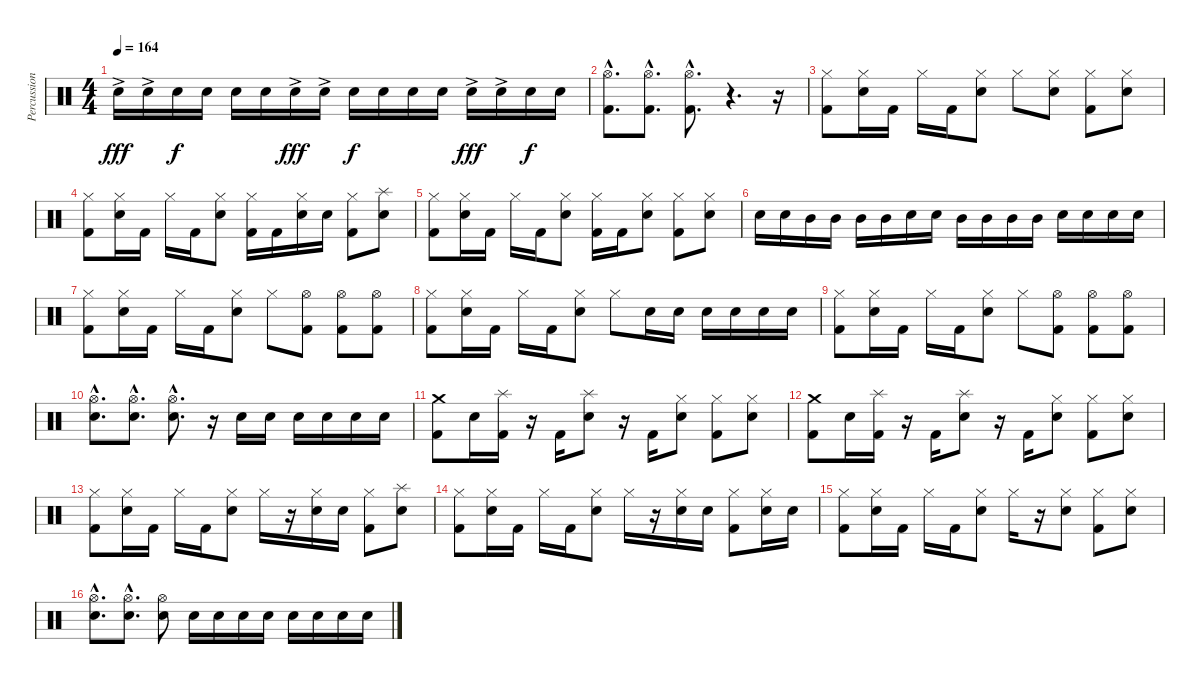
\track ("Percussion" "Percussion") {instrument percussion}
\staff {score}
\articulation defaults
\ts (4 4)
\tempo 164
\clef neutral
\ks c "Electric Snare (hit)"{ac}.16{dy fff} "Electric Snare (hit)"{ac}.16 "Electric Snare (hit)".16{dy f} "Electric Snare (hit)".16 "Electric Snare (hit)".16 "Electric Snare (hit)".16 "Electric Snare (hit)"{ac}.16{dy fff} "Electric Snare (hit)"{ac}.16 "Electric Snare (hit)".16{dy f} "Electric Snare (hit)".16 "Electric Snare (hit)".16 "Electric Snare (hit)".16 "Electric Snare (hit)"{ac}.16{dy fff} "Electric Snare (hit)"{ac}.16 "Electric Snare (hit)".16{dy f} "Electric Snare (hit)".16
|
("Hi-Hat (open)"{hac} "Kick (hit) 2"{hac}).8{d} ("Hi-Hat (open)"{hac} "Kick (hit) 2"{hac}).8{d} ("Hi-Hat (open)"{hac} "Kick (hit) 2"{hac}).8{d} r.4{d} r.16 |
("Hi-Hat (closed)" "Kick (hit) 2").8 ("Hi-Hat (closed)" "Electric Snare (hit)").16 "Kick (hit) 2".16 "Hi-Hat (closed)".16 "Kick (hit) 2".16 ("Hi-Hat (closed)" "Electric Snare (hit)").8 "Hi-Hat (closed)".8 ("Hi-Hat (closed)" "Electric Snare (hit)").8 ("Hi-Hat (closed)" "Kick (hit) 2").8 ("Hi-Hat (closed)" "Electric Snare (hit)").8 |
("Hi-Hat (closed)" "Kick (hit) 2").8 ("Hi-Hat (closed)" "Electric Snare (hit)").16 "Kick (hit) 2".16 "Hi-Hat (closed)".16 "Kick (hit) 2".16 ("Hi-Hat (closed)" "Electric Snare (hit)").8 ("Hi-Hat (closed)" "Kick (hit) 2").16 "Kick (hit) 2".16 ("Hi-Hat (closed)" "Electric Snare (hit)").16 "Electric Snare (hit)".16 ("Hi-Hat (closed)" "Kick (hit) 2").8 ("Splash (hit)" "Electric Snare (hit)").8 |
("Hi-Hat (closed)" "Kick (hit) 2").8 ("Hi-Hat (closed)" "Electric Snare (hit)").16 "Kick (hit) 2".16 "Hi-Hat (closed)".16 "Kick (hit) 2".16 ("Hi-Hat (closed)" "Electric Snare (hit)").8 ("Hi-Hat (closed)" "Kick (hit) 2").16 "Kick (hit) 2".16 ("Hi-Hat (closed)" "Electric Snare (hit)").8 ("Hi-Hat (closed)" "Kick (hit) 2").8 ("Hi-Hat (closed)" "Electric Snare (hit)").8 |
"Electric Snare (hit)".16 "Electric Snare (hit)".16 "Mid Tom (hit)".16 "Mid Tom (hit)".16 "Mid Tom (hit)".16 "Mid Tom (hit)".16 "Electric Snare (hit)".16 "Electric Snare (hit)".16 "Mid Tom (hit)".16 "Mid Tom (hit)".16 "Mid Tom (hit)".16 "Mid Tom (hit)".16 "Electric Snare (hit)".16 "Electric Snare (hit)".16 "Electric Snare (hit)".16 "Electric Snare (hit)".16 |
("Hi-Hat (closed)" "Kick (hit) 2").8 ("Hi-Hat (closed)" "Electric Snare (hit)").16 "Kick (hit) 2".16 "Hi-Hat (closed)".16 "Kick (hit) 2".16 ("Hi-Hat (closed)" "Electric Snare (hit)").8 "Hi-Hat (closed)".8 ("Hi-Hat (open)" "Kick (hit) 2").8 ("Hi-Hat (open)" "Kick (hit) 2").8 ("Hi-Hat (open)" "Kick (hit) 2").8 |
("Hi-Hat (closed)" "Kick (hit) 2").8 ("Hi-Hat (closed)" "Electric Snare (hit)").16 "Kick (hit) 2".16 "Hi-Hat (closed)".16 "Kick (hit) 2".16 ("Hi-Hat (closed)" "Electric Snare (hit)").8 "Hi-Hat (closed)".8 "Electric Snare (hit)".16 "Electric Snare (hit)".16 "Electric Snare (hit)".16 "Electric Snare (hit)".16 "Electric Snare (hit)".16 "Electric Snare (hit)".16 |
("Hi-Hat (closed)" "Kick (hit) 2").8 ("Hi-Hat (closed)" "Electric Snare (hit)").16 "Kick (hit) 2".16 "Hi-Hat (closed)".16 "Kick (hit) 2".16 ("Hi-Hat (closed)" "Electric Snare (hit)").8 "Hi-Hat (closed)".8 ("Hi-Hat (open)" "Kick (hit) 2").8 ("Hi-Hat (open)" "Kick (hit) 2").8 ("Hi-Hat (open)" "Kick (hit) 2").8 |
("Hi-Hat (open)"{hac} "Electric Snare (hit)"{hac}).8{d} ("Hi-Hat (open)"{hac} "Electric Snare (hit)"{hac}).8{d} ("Hi-Hat (open)"{hac} "Electric Snare (hit)"{hac}).8{d} r.16 "Electric Snare (hit)".16 "Electric Snare (hit)".16 "Electric Snare (hit)".16 "Electric Snare (hit)".16 "Electric Snare (hit)".16 "Electric Snare (hit)".16 |
("Crash medium (hit)" "Kick (hit) 2").8 "Electric Snare (hit)".16 ("Splash (hit)" "Kick (hit) 2").16 r.16 "Kick (hit) 2".16 ("Splash (hit)" "Electric Snare (hit)").8 r.16 "Kick (hit) 2".16 ("Hi-Hat (closed)" "Electric Snare (hit)").8 ("Hi-Hat (closed)" "Kick (hit) 2").8 ("Hi-Hat (closed)" "Electric Snare (hit)").8 |
("Crash medium (hit)" "Kick (hit) 2").8 "Electric Snare (hit)".16 ("Splash (hit)" "Kick (hit) 2").16 r.16 "Kick (hit) 2".16 ("Splash (hit)" "Electric Snare (hit)").8 r.16 "Kick (hit) 2".16 ("Hi-Hat (closed)" "Electric Snare (hit)").8 ("Hi-Hat (closed)" "Kick (hit) 2").8 ("Hi-Hat (closed)" "Electric Snare (hit)").8 |
("Hi-Hat (closed)" "Kick (hit) 2").8 ("Hi-Hat (closed)" "Electric Snare (hit)").16 "Kick (hit) 2".16 "Hi-Hat (closed)".16 "Kick (hit) 2".16 ("Hi-Hat (closed)" "Electric Snare (hit)").8 "Hi-Hat (closed)".16 r.16 ("Hi-Hat (closed)" "Electric Snare (hit)").16 "Electric Snare (hit)".16 ("Hi-Hat (closed)" "Kick (hit) 2").8 ("Splash (hit)" "Electric Snare (hit)").8 |
("Hi-Hat (closed)" "Kick (hit) 2").8 ("Hi-Hat (closed)" "Electric Snare (hit)").16 "Kick (hit) 2".16 "Hi-Hat (closed)".16 "Kick (hit) 2".16 ("Hi-Hat (closed)" "Electric Snare (hit)").8 "Hi-Hat (closed)".16 r.16 ("Hi-Hat (closed)" "Electric Snare (hit)").16 "Electric Snare (hit)".16 ("Hi-Hat (closed)" "Kick (hit) 2").8 ("Hi-Hat (closed)" "Electric Snare (hit)").16 "Electric Snare (hit)".16 |
("Hi-Hat (closed)" "Kick (hit) 2").8 ("Hi-Hat (closed)" "Electric Snare (hit)").16 "Kick (hit) 2".16 "Hi-Hat (closed)".16 "Kick (hit) 2".16 ("Hi-Hat (closed)" "Electric Snare (hit)").8 "Hi-Hat (closed)".16 r.16 ("Hi-Hat (closed)" "Electric Snare (hit)").8 ("Hi-Hat (closed)" "Kick (hit) 2").8 ("Hi-Hat (closed)" "Electric Snare (hit)").8 |
("Hi-Hat (open)"{hac} "Electric Snare (hit)"{hac}).8{d} ("Hi-Hat (open)"{hac} "Electric Snare (hit)"{hac}).8{d} ("Hi-Hat (open)" "Electric Snare (hit)").8 "Electric Snare (hit)".16 "Electric Snare (hit)".16 "Electric Snare (hit)".16 "Electric Snare (hit)".16 "Electric Snare (hit)".16 "Electric Snare (hit)".16 "Electric Snare (hit)".16 "Electric Snare (hit)".16
